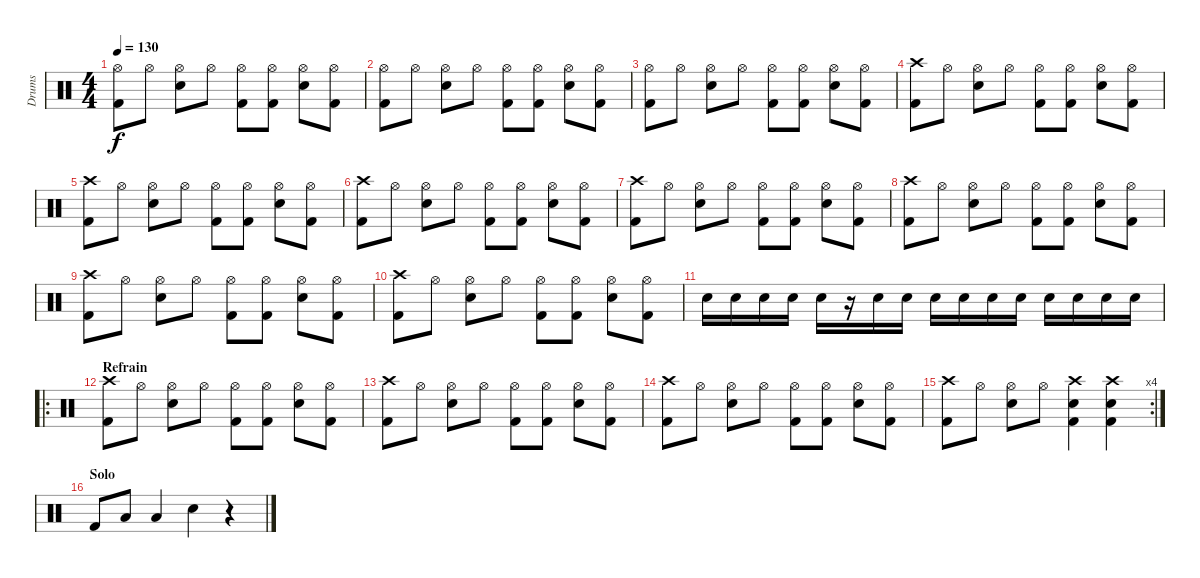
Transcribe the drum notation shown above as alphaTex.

\track ("Drums" "Drums") {instrument percussion}
\staff {score}
\articulation defaults
\ts (4 4)
\tempo 130
\clef neutral
\ks c
("Hi-Hat (open)" "Kick (hit) 2").8{dy f} "Hi-Hat (open)".8 ("Hi-Hat (open)" "Electric Snare (hit)").8 "Hi-Hat (open)".8 ("Hi-Hat (open)" "Kick (hit) 2").8 ("Hi-Hat (open)" "Kick (hit) 2").8 ("Hi-Hat (open)" "Electric Snare (hit)").8 ("Hi-Hat (open)" "Kick (hit) 2").8 |
("Hi-Hat (open)" "Kick (hit) 2").8 "Hi-Hat (open)".8 ("Hi-Hat (open)" "Electric Snare (hit)").8 "Hi-Hat (open)".8 ("Hi-Hat (open)" "Kick (hit) 2").8 ("Hi-Hat (open)" "Kick (hit) 2").8 ("Hi-Hat (open)" "Electric Snare (hit)").8 ("Hi-Hat (open)" "Kick (hit) 2").8 |
("Hi-Hat (open)" "Kick (hit) 2").8 "Hi-Hat (open)".8 ("Hi-Hat (open)" "Electric Snare (hit)").8 "Hi-Hat (open)".8 ("Hi-Hat (open)" "Kick (hit) 2").8 ("Hi-Hat (open)" "Kick (hit) 2").8 ("Hi-Hat (open)" "Electric Snare (hit)").8 ("Hi-Hat (open)" "Kick (hit) 2").8 |
("Crash high (hit)" "Kick (hit) 2").8 "Hi-Hat (open)".8 ("Hi-Hat (open)" "Electric Snare (hit)").8 "Hi-Hat (open)".8 ("Hi-Hat (open)" "Kick (hit) 2").8 ("Hi-Hat (open)" "Kick (hit) 2").8 ("Hi-Hat (open)" "Electric Snare (hit)").8 ("Hi-Hat (open)" "Kick (hit) 2").8 |
("Crash high (hit)" "Kick (hit) 2").8 "Hi-Hat (open)".8 ("Hi-Hat (open)" "Electric Snare (hit)").8 "Hi-Hat (open)".8 ("Hi-Hat (open)" "Kick (hit) 2").8 ("Hi-Hat (open)" "Kick (hit) 2").8 ("Hi-Hat (open)" "Electric Snare (hit)").8 ("Hi-Hat (open)" "Kick (hit) 2").8 |
("Crash high (hit)" "Kick (hit) 2").8 "Hi-Hat (open)".8 ("Hi-Hat (open)" "Electric Snare (hit)").8 "Hi-Hat (open)".8 ("Hi-Hat (open)" "Kick (hit) 2").8 ("Hi-Hat (open)" "Kick (hit) 2").8 ("Hi-Hat (open)" "Electric Snare (hit)").8 ("Hi-Hat (open)" "Kick (hit) 2").8 |
("Crash high (hit)" "Kick (hit) 2").8 "Hi-Hat (open)".8 ("Hi-Hat (open)" "Electric Snare (hit)").8 "Hi-Hat (open)".8 ("Hi-Hat (open)" "Kick (hit) 2").8 ("Hi-Hat (open)" "Kick (hit) 2").8 ("Hi-Hat (open)" "Electric Snare (hit)").8 ("Hi-Hat (open)" "Kick (hit) 2").8 |
("Crash high (hit)" "Kick (hit) 2").8 "Hi-Hat (open)".8 ("Hi-Hat (open)" "Electric Snare (hit)").8 "Hi-Hat (open)".8 ("Hi-Hat (open)" "Kick (hit) 2").8 ("Hi-Hat (open)" "Kick (hit) 2").8 ("Hi-Hat (open)" "Electric Snare (hit)").8 ("Hi-Hat (open)" "Kick (hit) 2").8 |
("Crash high (hit)" "Kick (hit) 2").8 "Hi-Hat (open)".8 ("Hi-Hat (open)" "Electric Snare (hit)").8 "Hi-Hat (open)".8 ("Hi-Hat (open)" "Kick (hit) 2").8 ("Hi-Hat (open)" "Kick (hit) 2").8 ("Hi-Hat (open)" "Electric Snare (hit)").8 ("Hi-Hat (open)" "Kick (hit) 2").8 |
("Crash high (hit)" "Kick (hit) 2").8 "Hi-Hat (open)".8 ("Hi-Hat (open)" "Electric Snare (hit)").8 "Hi-Hat (open)".8 ("Hi-Hat (open)" "Kick (hit) 2").8 ("Hi-Hat (open)" "Kick (hit) 2").8 ("Hi-Hat (open)" "Electric Snare (hit)").8 ("Hi-Hat (open)" "Kick (hit) 2").8 |
"Electric Snare (hit)".16 "Electric Snare (hit)".16 "Electric Snare (hit)".16 "Electric Snare (hit)".16 "Electric Snare (hit)".16 r.16 "Electric Snare (hit)".16 "Electric Snare (hit)".16 "Electric Snare (hit)".16 "Electric Snare (hit)".16 "Electric Snare (hit)".16 "Electric Snare (hit)".16 "Electric Snare (hit)".16 "Electric Snare (hit)".16 "Electric Snare (hit)".16 "Electric Snare (hit)".16 |
\ro
\section ("" "Refrain")
("Crash high (hit)" "Kick (hit) 2").8 "Hi-Hat (open)".8 ("Hi-Hat (open)" "Electric Snare (hit)").8 "Hi-Hat (open)".8 ("Hi-Hat (open)" "Kick (hit) 2").8 ("Hi-Hat (open)" "Kick (hit) 2").8 ("Hi-Hat (open)" "Electric Snare (hit)").8 ("Hi-Hat (open)" "Kick (hit) 2").8 |
("Crash high (hit)" "Kick (hit) 2").8 "Hi-Hat (open)".8 ("Hi-Hat (open)" "Electric Snare (hit)").8 "Hi-Hat (open)".8 ("Hi-Hat (open)" "Kick (hit) 2").8 ("Hi-Hat (open)" "Kick (hit) 2").8 ("Hi-Hat (open)" "Electric Snare (hit)").8 ("Hi-Hat (open)" "Kick (hit) 2").8 |
("Crash high (hit)" "Kick (hit) 2").8 "Hi-Hat (open)".8 ("Hi-Hat (open)" "Electric Snare (hit)").8 "Hi-Hat (open)".8 ("Hi-Hat (open)" "Kick (hit) 2").8 ("Hi-Hat (open)" "Kick (hit) 2").8 ("Hi-Hat (open)" "Electric Snare (hit)").8 ("Hi-Hat (open)" "Kick (hit) 2").8 |
\rc 4
("Crash high (hit)" "Kick (hit) 2").8 "Hi-Hat (open)".8 ("Hi-Hat (open)" "Electric Snare (hit)").8 "Hi-Hat (open)".8 ("Crash high (hit)" "Electric Snare (hit)" "Kick (hit) 2").4 ("Crash high (hit)" "Electric Snare (hit)" "Kick (hit) 2").4 |
\section ("" "Solo")
"Kick (hit) 2".8 "Low Floor Tom (hit)".8 "Low Floor Tom (hit)".4 "Electric Snare (hit)".4 r.4
